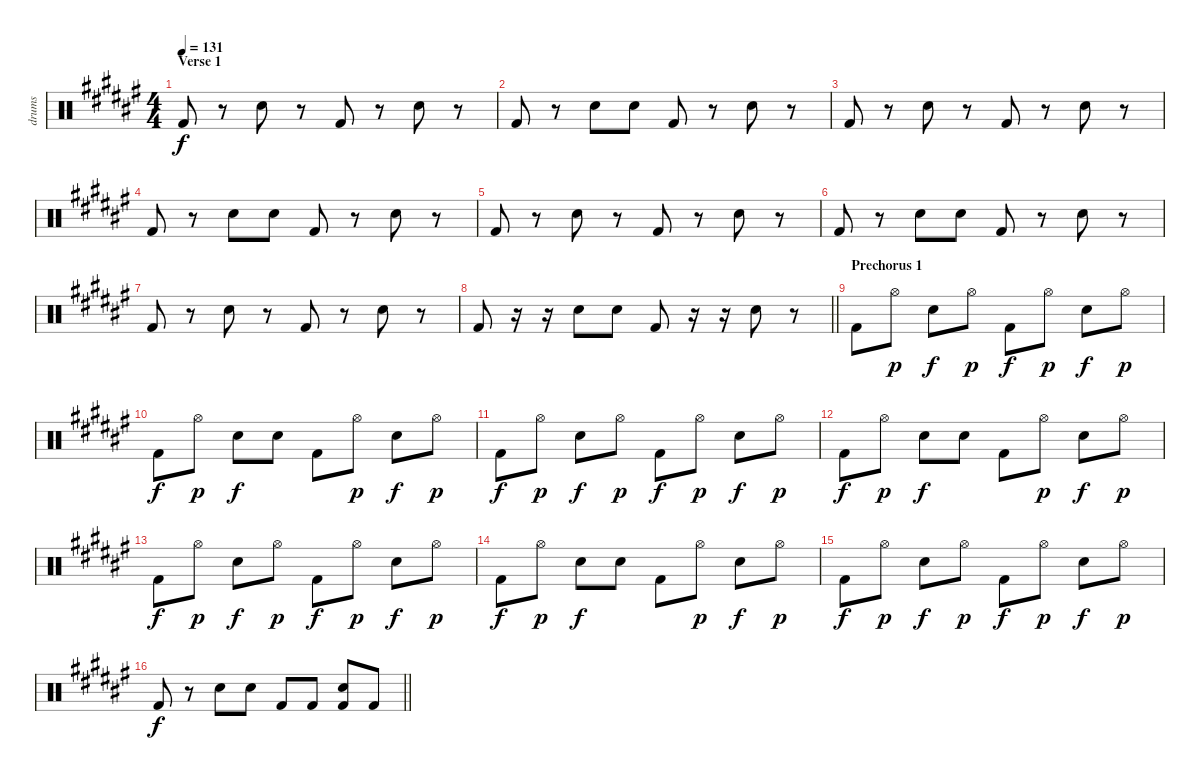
\track ("drums" "drums") {instrument percussion}
\staff {score}
\articulation defaults
\ts (4 4)
\section ("" "Verse 1")
\tempo 131
\clef neutral
\ks f# "Kick (hit) 2".8{dy f}
r.8 "Snare (hit) 2".8 r.8 "Kick (hit) 2".8 r.8 "Snare (hit) 2".8 r.8 |
"Kick (hit) 2".8 r.8 "Snare (hit) 2".8 "Snare (hit) 2".8 "Kick (hit) 2".8 r.8 "Snare (hit) 2".8 r.8 |
"Kick (hit) 2".8 r.8 "Snare (hit) 2".8 r.8 "Kick (hit) 2".8 r.8 "Snare (hit) 2".8 r.8 |
"Kick (hit) 2".8 r.8 "Snare (hit) 2".8 "Snare (hit) 2".8 "Kick (hit) 2".8 r.8 "Snare (hit) 2".8 r.8 |
"Kick (hit) 2".8 r.8 "Snare (hit) 2".8 r.8 "Kick (hit) 2".8 r.8 "Snare (hit) 2".8 r.8 |
"Kick (hit) 2".8 r.8 "Snare (hit) 2".8 "Snare (hit) 2".8 "Kick (hit) 2".8 r.8 "Snare (hit) 2".8 r.8 |
"Kick (hit) 2".8 r.8 "Snare (hit) 2".8 r.8 "Kick (hit) 2".8 r.8 "Snare (hit) 2".8 r.8 |
\barLineRight lightlight "Kick (hit) 2".8
r.16 r.16 "Snare (hit) 2".8 "Snare (hit) 2".8 "Kick (hit) 2".8 r.16 r.16 "Snare (hit) 2".8 r.8 |
\section ("" "Prechorus 1")
"Kick (hit) 2".8 "Hi-Hat (open)".8{dy p} "Snare (hit) 2".8{dy f} "Hi-Hat (open)".8{dy p} "Kick (hit) 2".8{dy f} "Hi-Hat (open)".8{dy p} "Snare (hit) 2".8{dy f} "Hi-Hat (open)".8{dy p} |
"Kick (hit) 2".8{dy f} "Hi-Hat (open)".8{dy p} "Snare (hit) 2".8{dy f} "Snare (hit) 2".8 "Kick (hit) 2".8 "Hi-Hat (open)".8{dy p} "Snare (hit) 2".8{dy f} "Hi-Hat (open)".8{dy p} |
"Kick (hit) 2".8{dy f} "Hi-Hat (open)".8{dy p} "Snare (hit) 2".8{dy f} "Hi-Hat (open)".8{dy p} "Kick (hit) 2".8{dy f} "Hi-Hat (open)".8{dy p} "Snare (hit) 2".8{dy f} "Hi-Hat (open)".8{dy p} |
"Kick (hit) 2".8{dy f} "Hi-Hat (open)".8{dy p} "Snare (hit) 2".8{dy f} "Snare (hit) 2".8 "Kick (hit) 2".8 "Hi-Hat (open)".8{dy p} "Snare (hit) 2".8{dy f} "Hi-Hat (open)".8{dy p} |
"Kick (hit) 2".8{dy f} "Hi-Hat (open)".8{dy p} "Snare (hit) 2".8{dy f} "Hi-Hat (open)".8{dy p} "Kick (hit) 2".8{dy f} "Hi-Hat (open)".8{dy p} "Snare (hit) 2".8{dy f} "Hi-Hat (open)".8{dy p} |
"Kick (hit) 2".8{dy f} "Hi-Hat (open)".8{dy p} "Snare (hit) 2".8{dy f} "Snare (hit) 2".8 "Kick (hit) 2".8 "Hi-Hat (open)".8{dy p} "Snare (hit) 2".8{dy f} "Hi-Hat (open)".8{dy p} |
"Kick (hit) 2".8{dy f} "Hi-Hat (open)".8{dy p} "Snare (hit) 2".8{dy f} "Hi-Hat (open)".8{dy p} "Kick (hit) 2".8{dy f} "Hi-Hat (open)".8{dy p} "Snare (hit) 2".8{dy f} "Hi-Hat (open)".8{dy p} |
\barLineRight lightlight "Kick (hit) 2".8{dy f}
r.8 "Snare (hit) 2".8 "Snare (hit) 2".8 "Kick (hit) 2".8 "Kick (hit) 2".8 ("Snare (hit) 2" "Kick (hit) 2").8 "Kick (hit) 2".8
